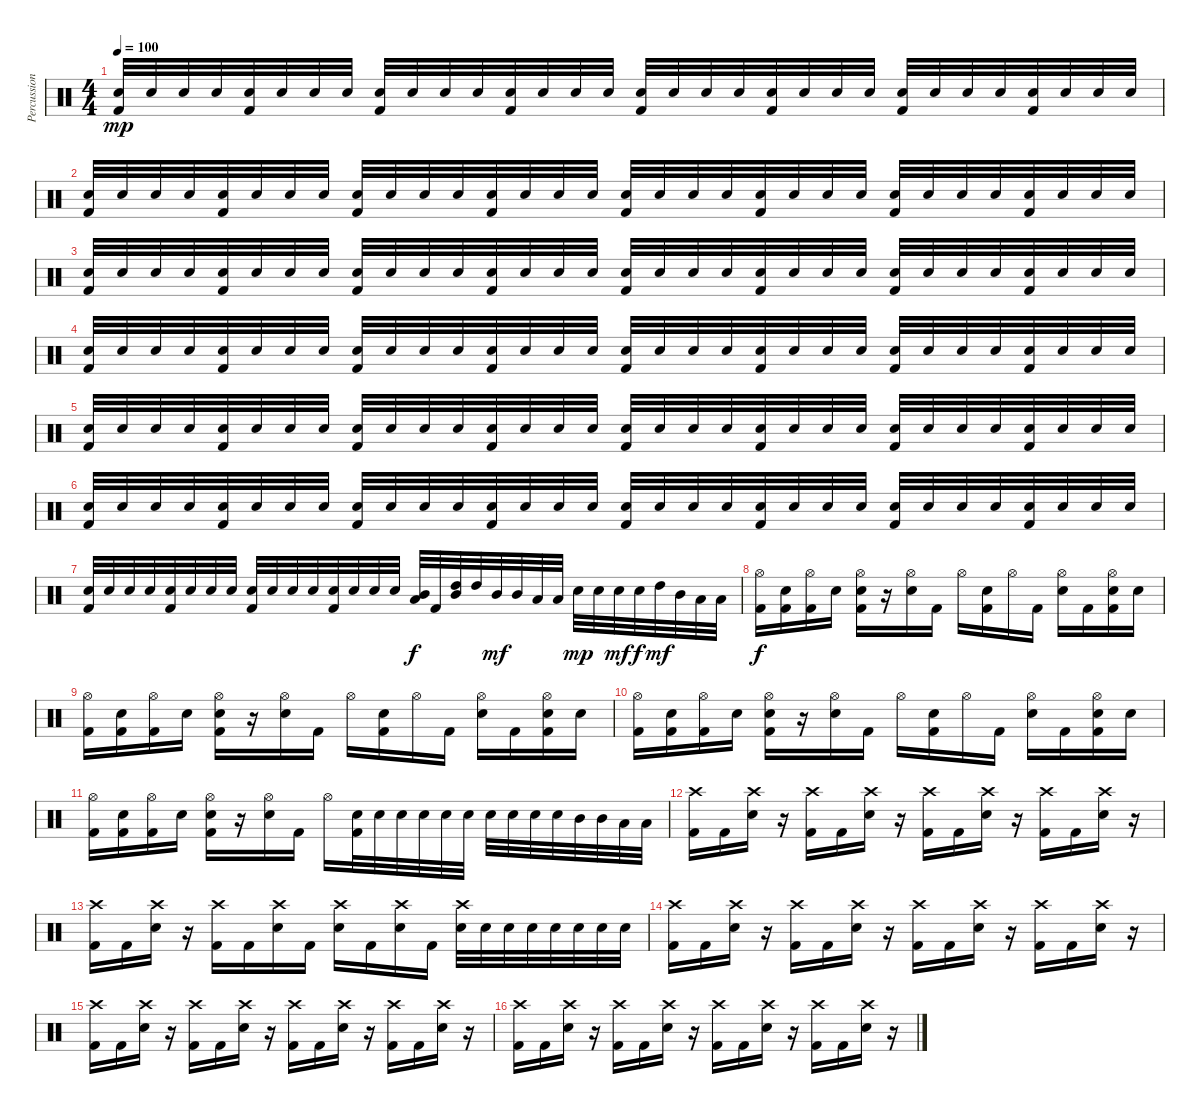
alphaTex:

\track ("Percussions" "Percussion") {instrument percussion}
\staff {score}
\articulation defaults
\ts (4 4)
\tempo 100
\clef neutral
\ks c
("Electric Snare (hit)" "Kick (hit) 2").32{dy mp} "Electric Snare (hit)".32 "Electric Snare (hit)".32 "Electric Snare (hit)".32 ("Electric Snare (hit)" "Kick (hit) 2").32 "Electric Snare (hit)".32 "Electric Snare (hit)".32 "Electric Snare (hit)".32 ("Electric Snare (hit)" "Kick (hit) 2").32 "Electric Snare (hit)".32 "Electric Snare (hit)".32 "Electric Snare (hit)".32 ("Electric Snare (hit)" "Kick (hit) 2").32 "Electric Snare (hit)".32 "Electric Snare (hit)".32 "Electric Snare (hit)".32 ("Electric Snare (hit)" "Kick (hit) 2").32 "Electric Snare (hit)".32 "Electric Snare (hit)".32 "Electric Snare (hit)".32 ("Electric Snare (hit)" "Kick (hit) 2").32 "Electric Snare (hit)".32 "Electric Snare (hit)".32 "Electric Snare (hit)".32 ("Electric Snare (hit)" "Kick (hit) 2").32 "Electric Snare (hit)".32 "Electric Snare (hit)".32 "Electric Snare (hit)".32 ("Electric Snare (hit)" "Kick (hit) 2").32 "Electric Snare (hit)".32 "Electric Snare (hit)".32 "Electric Snare (hit)".32 |
("Electric Snare (hit)" "Kick (hit) 2").32 "Electric Snare (hit)".32 "Electric Snare (hit)".32 "Electric Snare (hit)".32 ("Electric Snare (hit)" "Kick (hit) 2").32 "Electric Snare (hit)".32 "Electric Snare (hit)".32 "Electric Snare (hit)".32 ("Electric Snare (hit)" "Kick (hit) 2").32 "Electric Snare (hit)".32 "Electric Snare (hit)".32 "Electric Snare (hit)".32 ("Electric Snare (hit)" "Kick (hit) 2").32 "Electric Snare (hit)".32 "Electric Snare (hit)".32 "Electric Snare (hit)".32 ("Electric Snare (hit)" "Kick (hit) 2").32 "Electric Snare (hit)".32 "Electric Snare (hit)".32 "Electric Snare (hit)".32 ("Electric Snare (hit)" "Kick (hit) 2").32 "Electric Snare (hit)".32 "Electric Snare (hit)".32 "Electric Snare (hit)".32 ("Electric Snare (hit)" "Kick (hit) 2").32 "Electric Snare (hit)".32 "Electric Snare (hit)".32 "Electric Snare (hit)".32 ("Electric Snare (hit)" "Kick (hit) 2").32 "Electric Snare (hit)".32 "Electric Snare (hit)".32 "Electric Snare (hit)".32 |
("Electric Snare (hit)" "Kick (hit) 2").32 "Electric Snare (hit)".32 "Electric Snare (hit)".32 "Electric Snare (hit)".32 ("Electric Snare (hit)" "Kick (hit) 2").32 "Electric Snare (hit)".32 "Electric Snare (hit)".32 "Electric Snare (hit)".32 ("Electric Snare (hit)" "Kick (hit) 2").32 "Electric Snare (hit)".32 "Electric Snare (hit)".32 "Electric Snare (hit)".32 ("Electric Snare (hit)" "Kick (hit) 2").32 "Electric Snare (hit)".32 "Electric Snare (hit)".32 "Electric Snare (hit)".32 ("Electric Snare (hit)" "Kick (hit) 2").32 "Electric Snare (hit)".32 "Electric Snare (hit)".32 "Electric Snare (hit)".32 ("Electric Snare (hit)" "Kick (hit) 2").32 "Electric Snare (hit)".32 "Electric Snare (hit)".32 "Electric Snare (hit)".32 ("Electric Snare (hit)" "Kick (hit) 2").32 "Electric Snare (hit)".32 "Electric Snare (hit)".32 "Electric Snare (hit)".32 ("Electric Snare (hit)" "Kick (hit) 2").32 "Electric Snare (hit)".32 "Electric Snare (hit)".32 "Electric Snare (hit)".32 |
("Electric Snare (hit)" "Kick (hit) 2").32 "Electric Snare (hit)".32 "Electric Snare (hit)".32 "Electric Snare (hit)".32 ("Electric Snare (hit)" "Kick (hit) 2").32 "Electric Snare (hit)".32 "Electric Snare (hit)".32 "Electric Snare (hit)".32 ("Electric Snare (hit)" "Kick (hit) 2").32 "Electric Snare (hit)".32 "Electric Snare (hit)".32 "Electric Snare (hit)".32 ("Electric Snare (hit)" "Kick (hit) 2").32 "Electric Snare (hit)".32 "Electric Snare (hit)".32 "Electric Snare (hit)".32 ("Electric Snare (hit)" "Kick (hit) 2").32 "Electric Snare (hit)".32 "Electric Snare (hit)".32 "Electric Snare (hit)".32 ("Electric Snare (hit)" "Kick (hit) 2").32 "Electric Snare (hit)".32 "Electric Snare (hit)".32 "Electric Snare (hit)".32 ("Electric Snare (hit)" "Kick (hit) 2").32 "Electric Snare (hit)".32 "Electric Snare (hit)".32 "Electric Snare (hit)".32 ("Electric Snare (hit)" "Kick (hit) 2").32 "Electric Snare (hit)".32 "Electric Snare (hit)".32 "Electric Snare (hit)".32 |
("Electric Snare (hit)" "Kick (hit) 2").32 "Electric Snare (hit)".32 "Electric Snare (hit)".32 "Electric Snare (hit)".32 ("Electric Snare (hit)" "Kick (hit) 2").32 "Electric Snare (hit)".32 "Electric Snare (hit)".32 "Electric Snare (hit)".32 ("Electric Snare (hit)" "Kick (hit) 2").32 "Electric Snare (hit)".32 "Electric Snare (hit)".32 "Electric Snare (hit)".32 ("Electric Snare (hit)" "Kick (hit) 2").32 "Electric Snare (hit)".32 "Electric Snare (hit)".32 "Electric Snare (hit)".32 ("Electric Snare (hit)" "Kick (hit) 2").32 "Electric Snare (hit)".32 "Electric Snare (hit)".32 "Electric Snare (hit)".32 ("Electric Snare (hit)" "Kick (hit) 2").32 "Electric Snare (hit)".32 "Electric Snare (hit)".32 "Electric Snare (hit)".32 ("Electric Snare (hit)" "Kick (hit) 2").32 "Electric Snare (hit)".32 "Electric Snare (hit)".32 "Electric Snare (hit)".32 ("Electric Snare (hit)" "Kick (hit) 2").32 "Electric Snare (hit)".32 "Electric Snare (hit)".32 "Electric Snare (hit)".32 |
("Electric Snare (hit)" "Kick (hit) 2").32 "Electric Snare (hit)".32 "Electric Snare (hit)".32 "Electric Snare (hit)".32 ("Electric Snare (hit)" "Kick (hit) 2").32 "Electric Snare (hit)".32 "Electric Snare (hit)".32 "Electric Snare (hit)".32 ("Electric Snare (hit)" "Kick (hit) 2").32 "Electric Snare (hit)".32 "Electric Snare (hit)".32 "Electric Snare (hit)".32 ("Electric Snare (hit)" "Kick (hit) 2").32 "Electric Snare (hit)".32 "Electric Snare (hit)".32 "Electric Snare (hit)".32 ("Electric Snare (hit)" "Kick (hit) 2").32 "Electric Snare (hit)".32 "Electric Snare (hit)".32 "Electric Snare (hit)".32 ("Electric Snare (hit)" "Kick (hit) 2").32 "Electric Snare (hit)".32 "Electric Snare (hit)".32 "Electric Snare (hit)".32 ("Electric Snare (hit)" "Kick (hit) 2").32 "Electric Snare (hit)".32 "Electric Snare (hit)".32 "Electric Snare (hit)".32 ("Electric Snare (hit)" "Kick (hit) 2").32 "Electric Snare (hit)".32 "Electric Snare (hit)".32 "Electric Snare (hit)".32 |
("Electric Snare (hit)" "Kick (hit) 2").32 "Electric Snare (hit)".32 "Electric Snare (hit)".32 "Electric Snare (hit)".32 ("Electric Snare (hit)" "Kick (hit) 2").32 "Electric Snare (hit)".32 "Electric Snare (hit)".32 "Electric Snare (hit)".32 ("Electric Snare (hit)" "Kick (hit) 2").32 "Electric Snare (hit)".32 "Electric Snare (hit)".32 "Electric Snare (hit)".32 ("Electric Snare (hit)" "Kick (hit) 2").32 "Electric Snare (hit)".32 "Electric Snare (hit)".32 "Electric Snare (hit)".32 ("Mid Tom (hit)" "Low Tom (hit)").32{dy f} "Kick (hit) 2".32 ("High Tom (hit)" "Mid Tom (hit)").32 "High Tom (hit)".32 "Mid Tom (hit)".32{dy mf} "Mid Tom (hit)".32 "Low Tom (hit)".32 "Low Tom (hit)".32 "Electric Snare (hit)".32{dy mp} "Electric Snare (hit)".32 "Electric Snare (hit)".32{dy mf} "Electric Snare (hit)".32{dy f} "High Tom (hit)".32{dy mf} "Mid Tom (hit)".32 "Low Tom (hit)".32 "Low Tom (hit)".32 |
("Hi-Hat (open)" "Kick (hit) 2").16{dy f} ("Electric Snare (hit)" "Kick (hit) 2").16 ("Hi-Hat (open)" "Kick (hit) 2").16 "Electric Snare (hit)".16 ("Hi-Hat (open)" "Electric Snare (hit)" "Kick (hit) 2").16 r.16 ("Hi-Hat (open)" "Electric Snare (hit)").16 "Kick (hit) 2".16 "Hi-Hat (open)".16 ("Electric Snare (hit)" "Kick (hit) 2").16 "Hi-Hat (open)".16 "Kick (hit) 2".16 ("Hi-Hat (open)" "Electric Snare (hit)").16 "Kick (hit) 2".16 ("Hi-Hat (open)" "Electric Snare (hit)" "Kick (hit) 2").16 "Electric Snare (hit)".16 |
("Hi-Hat (open)" "Kick (hit) 2").16 ("Electric Snare (hit)" "Kick (hit) 2").16 ("Hi-Hat (open)" "Kick (hit) 2").16 "Electric Snare (hit)".16 ("Hi-Hat (open)" "Electric Snare (hit)" "Kick (hit) 2").16 r.16 ("Hi-Hat (open)" "Electric Snare (hit)").16 "Kick (hit) 2".16 "Hi-Hat (open)".16 ("Electric Snare (hit)" "Kick (hit) 2").16 "Hi-Hat (open)".16 "Kick (hit) 2".16 ("Hi-Hat (open)" "Electric Snare (hit)").16 "Kick (hit) 2".16 ("Hi-Hat (open)" "Electric Snare (hit)" "Kick (hit) 2").16 "Electric Snare (hit)".16 |
("Hi-Hat (open)" "Kick (hit) 2").16 ("Electric Snare (hit)" "Kick (hit) 2").16 ("Hi-Hat (open)" "Kick (hit) 2").16 "Electric Snare (hit)".16 ("Hi-Hat (open)" "Electric Snare (hit)" "Kick (hit) 2").16 r.16 ("Hi-Hat (open)" "Electric Snare (hit)").16 "Kick (hit) 2".16 "Hi-Hat (open)".16 ("Electric Snare (hit)" "Kick (hit) 2").16 "Hi-Hat (open)".16 "Kick (hit) 2".16 ("Hi-Hat (open)" "Electric Snare (hit)").16 "Kick (hit) 2".16 ("Hi-Hat (open)" "Electric Snare (hit)" "Kick (hit) 2").16 "Electric Snare (hit)".16 |
("Hi-Hat (open)" "Kick (hit) 2").16 ("Electric Snare (hit)" "Kick (hit) 2").16 ("Hi-Hat (open)" "Kick (hit) 2").16 "Electric Snare (hit)".16 ("Hi-Hat (open)" "Electric Snare (hit)" "Kick (hit) 2").16 r.16 ("Hi-Hat (open)" "Electric Snare (hit)").16 "Kick (hit) 2".16 "Hi-Hat (open)".16 ("Electric Snare (hit)" "Kick (hit) 2").32 "Electric Snare (hit)".32 "Electric Snare (hit)".32 "Electric Snare (hit)".32 "Electric Snare (hit)".32 "Electric Snare (hit)".32 "Electric Snare (hit)".32 "Electric Snare (hit)".32 "Electric Snare (hit)".32 "Electric Snare (hit)".32 "Mid Tom (hit)".32 "Mid Tom (hit)".32 "Low Tom (hit)".32 "Low Tom (hit)".32 |
("Crash high (hit)" "Kick (hit) 2").16 "Kick (hit) 2".16 ("Crash high (hit)" "Electric Snare (hit)").16 r.16 ("Crash high (hit)" "Kick (hit) 2").16 "Kick (hit) 2".16 ("Crash high (hit)" "Electric Snare (hit)").16 r.16 ("Crash high (hit)" "Kick (hit) 2").16 "Kick (hit) 2".16 ("Crash high (hit)" "Electric Snare (hit)").16 r.16 ("Crash high (hit)" "Kick (hit) 2").16 "Kick (hit) 2".16 ("Crash high (hit)" "Electric Snare (hit)").16 r.16 |
("Crash high (hit)" "Kick (hit) 2").16 "Kick (hit) 2".16 ("Crash high (hit)" "Electric Snare (hit)").16 r.16 ("Crash high (hit)" "Kick (hit) 2").16 "Kick (hit) 2".16 ("Crash high (hit)" "Electric Snare (hit)").16 "Kick (hit) 2".16 ("Crash high (hit)" "Electric Snare (hit)").16 "Kick (hit) 2".16 ("Crash high (hit)" "Electric Snare (hit)").16 "Kick (hit) 2".16 ("Crash high (hit)" "Electric Snare (hit)").32 "Electric Snare (hit)".32 "Electric Snare (hit)".32 "Electric Snare (hit)".32 "Electric Snare (hit)".32 "Electric Snare (hit)".32 "Electric Snare (hit)".32 "Electric Snare (hit)".32 |
("Crash high (hit)" "Kick (hit) 2").16 "Kick (hit) 2".16 ("Crash high (hit)" "Electric Snare (hit)").16 r.16 ("Crash high (hit)" "Kick (hit) 2").16 "Kick (hit) 2".16 ("Crash high (hit)" "Electric Snare (hit)").16 r.16 ("Crash high (hit)" "Kick (hit) 2").16 "Kick (hit) 2".16 ("Crash high (hit)" "Electric Snare (hit)").16 r.16 ("Crash high (hit)" "Kick (hit) 2").16 "Kick (hit) 2".16 ("Crash high (hit)" "Electric Snare (hit)").16 r.16 |
("Crash high (hit)" "Kick (hit) 2").16 "Kick (hit) 2".16 ("Crash high (hit)" "Electric Snare (hit)").16 r.16 ("Crash high (hit)" "Kick (hit) 2").16 "Kick (hit) 2".16 ("Crash high (hit)" "Electric Snare (hit)").16 r.16 ("Crash high (hit)" "Kick (hit) 2").16 "Kick (hit) 2".16 ("Crash high (hit)" "Electric Snare (hit)").16 r.16 ("Crash high (hit)" "Kick (hit) 2").16 "Kick (hit) 2".16 ("Crash high (hit)" "Electric Snare (hit)").16 r.16 |
("Crash high (hit)" "Kick (hit) 2").16 "Kick (hit) 2".16 ("Crash high (hit)" "Electric Snare (hit)").16 r.16 ("Crash high (hit)" "Kick (hit) 2").16 "Kick (hit) 2".16 ("Crash high (hit)" "Electric Snare (hit)").16 r.16 ("Crash high (hit)" "Kick (hit) 2").16 "Kick (hit) 2".16 ("Crash high (hit)" "Electric Snare (hit)").16 r.16 ("Crash high (hit)" "Kick (hit) 2").16 "Kick (hit) 2".16 ("Crash high (hit)" "Electric Snare (hit)").16 r.16
